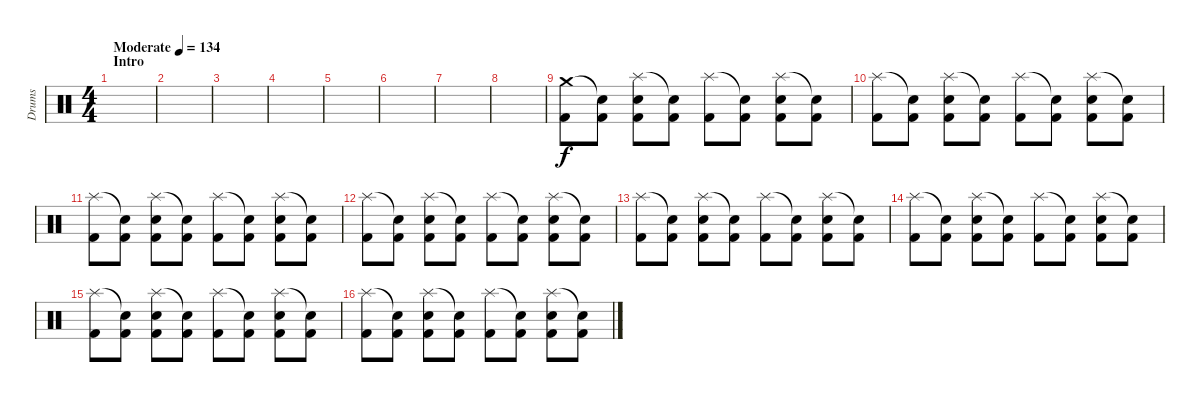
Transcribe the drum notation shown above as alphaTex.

\track ("Drums" "Drums") {instrument percussion}
\staff {score}
\articulation defaults
\ts (4 4)
\section ("" "Intro")
\tempo (134 "Moderate")
\clef neutral
\ks c
|
|
|
|
|
|
|
|
("Crash medium (hit)" "Kick (hit) 2").8 ("Snare (hit)"{t} "Kick (hit) 2").8 ("Splash (hit)" "Snare (hit) 2" "Kick (hit) 2").8 ("Snare (hit)"{t} "Kick (hit) 2").8 ("Splash (hit)" "Kick (hit) 2").8 ("Snare (hit)"{t} "Kick (hit) 2").8 ("Splash (hit)" "Snare (hit) 2" "Kick (hit) 2").8 ("Snare (hit)"{t} "Kick (hit) 2").8 |
("Splash (hit)" "Kick (hit) 2").8 ("Snare (hit)"{t} "Kick (hit) 2").8 ("Splash (hit)" "Snare (hit) 2" "Kick (hit) 2").8 ("Snare (hit)"{t} "Kick (hit) 2").8 ("Splash (hit)" "Kick (hit) 2").8 ("Snare (hit)"{t} "Kick (hit) 2").8 ("Splash (hit)" "Snare (hit) 2" "Kick (hit) 2").8 ("Snare (hit)"{t} "Kick (hit) 2").8 |
("Splash (hit)" "Kick (hit) 2").8 ("Snare (hit)"{t} "Kick (hit) 2").8 ("Splash (hit)" "Snare (hit) 2" "Kick (hit) 2").8 ("Snare (hit)"{t} "Kick (hit) 2").8 ("Splash (hit)" "Kick (hit) 2").8 ("Snare (hit)"{t} "Kick (hit) 2").8 ("Splash (hit)" "Snare (hit) 2" "Kick (hit) 2").8 ("Snare (hit)"{t} "Kick (hit) 2").8 |
("Splash (hit)" "Kick (hit) 2").8 ("Snare (hit)"{t} "Kick (hit) 2").8 ("Splash (hit)" "Snare (hit) 2" "Kick (hit) 2").8 ("Snare (hit)"{t} "Kick (hit) 2").8 ("Splash (hit)" "Kick (hit) 2").8 ("Snare (hit)"{t} "Kick (hit) 2").8 ("Splash (hit)" "Snare (hit) 2" "Kick (hit) 2").8 ("Snare (hit)"{t} "Kick (hit) 2").8 |
("Splash (hit)" "Kick (hit) 2").8 ("Snare (hit)"{t} "Kick (hit) 2").8 ("Splash (hit)" "Snare (hit) 2" "Kick (hit) 2").8 ("Snare (hit)"{t} "Kick (hit) 2").8 ("Splash (hit)" "Kick (hit) 2").8 ("Snare (hit)"{t} "Kick (hit) 2").8 ("Splash (hit)" "Snare (hit) 2" "Kick (hit) 2").8 ("Snare (hit)"{t} "Kick (hit) 2").8 |
("Splash (hit)" "Kick (hit) 2").8 ("Snare (hit)"{t} "Kick (hit) 2").8 ("Splash (hit)" "Snare (hit) 2" "Kick (hit) 2").8 ("Snare (hit)"{t} "Kick (hit) 2").8 ("Splash (hit)" "Kick (hit) 2").8 ("Snare (hit)"{t} "Kick (hit) 2").8 ("Splash (hit)" "Snare (hit) 2" "Kick (hit) 2").8 ("Snare (hit)"{t} "Kick (hit) 2").8 |
("Splash (hit)" "Kick (hit) 2").8 ("Snare (hit)"{t} "Kick (hit) 2").8 ("Splash (hit)" "Snare (hit) 2" "Kick (hit) 2").8 ("Snare (hit)"{t} "Kick (hit) 2").8 ("Splash (hit)" "Kick (hit) 2").8 ("Snare (hit)"{t} "Kick (hit) 2").8 ("Splash (hit)" "Snare (hit) 2" "Kick (hit) 2").8 ("Snare (hit)"{t} "Kick (hit) 2").8 |
("Splash (hit)" "Kick (hit) 2").8 ("Snare (hit)"{t} "Kick (hit) 2").8 ("Splash (hit)" "Snare (hit) 2" "Kick (hit) 2").8 ("Snare (hit)"{t} "Kick (hit) 2").8 ("Splash (hit)" "Kick (hit) 2").8 ("Snare (hit)"{t} "Kick (hit) 2").8 ("Splash (hit)" "Snare (hit) 2" "Kick (hit) 2").8 ("Snare (hit)"{t} "Kick (hit) 2").8
